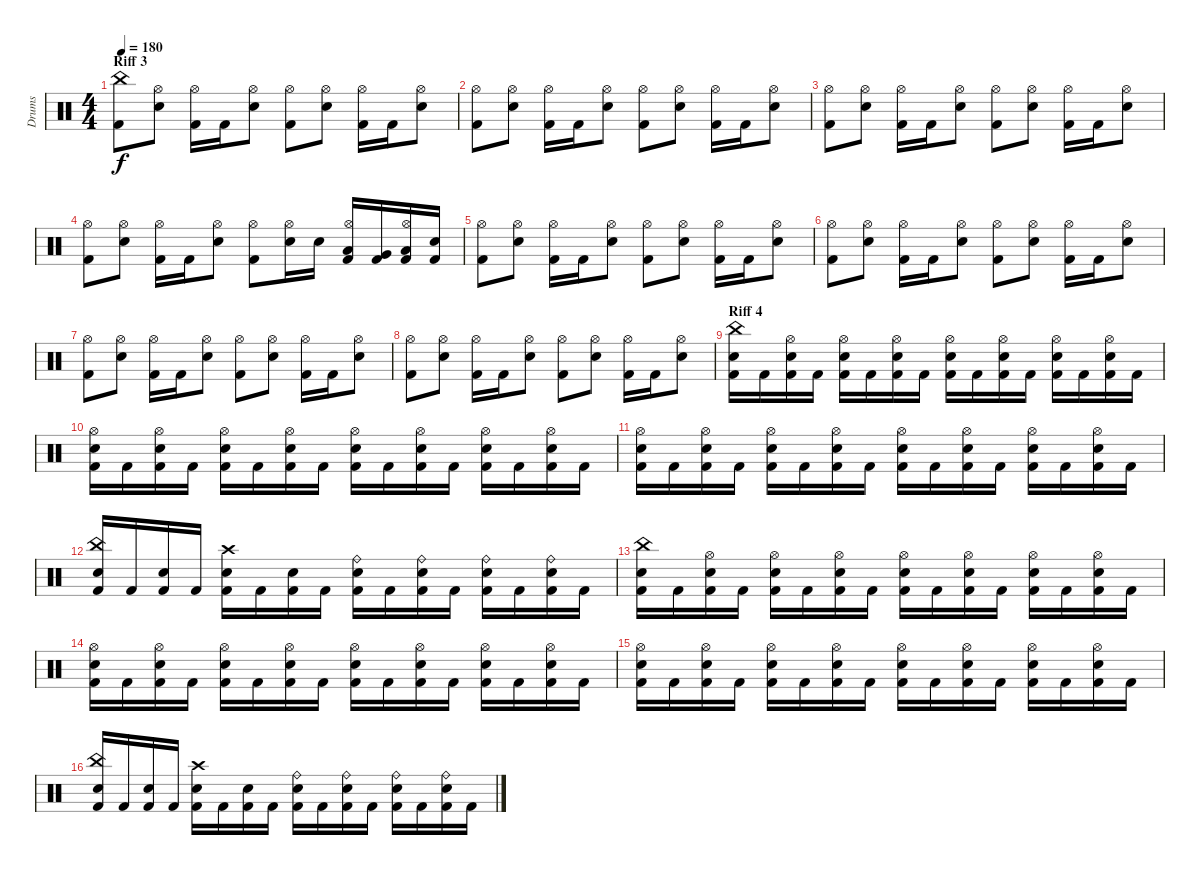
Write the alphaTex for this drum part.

\track ("Drums" "Drums") {instrument percussion}
\staff {score}
\articulation defaults
\ts (4 4)
\section ("" "Riff 3")
\tempo 180
\clef neutral
\ks c
("Kick (hit) 2" "China (hit)").8{dy f} ("Snare (hit) 2" "Hi-Hat (open)").8 ("Kick (hit) 2" "Hi-Hat (open)").16 "Kick (hit) 2".16 ("Snare (hit) 2" "Hi-Hat (open)").8 ("Kick (hit) 2" "Hi-Hat (open)").8 ("Snare (hit) 2" "Hi-Hat (open)").8 ("Kick (hit) 2" "Hi-Hat (open)").16 "Kick (hit) 2".16 ("Snare (hit) 2" "Hi-Hat (open)").8 |
("Kick (hit) 2" "Hi-Hat (open)").8 ("Snare (hit) 2" "Hi-Hat (open)").8 ("Kick (hit) 2" "Hi-Hat (open)").16 "Kick (hit) 2".16 ("Snare (hit) 2" "Hi-Hat (open)").8 ("Kick (hit) 2" "Hi-Hat (open)").8 ("Snare (hit) 2" "Hi-Hat (open)").8 ("Kick (hit) 2" "Hi-Hat (open)").16 "Kick (hit) 2".16 ("Snare (hit) 2" "Hi-Hat (open)").8 |
("Kick (hit) 2" "Hi-Hat (open)").8 ("Snare (hit) 2" "Hi-Hat (open)").8 ("Kick (hit) 2" "Hi-Hat (open)").16 "Kick (hit) 2".16 ("Snare (hit) 2" "Hi-Hat (open)").8 ("Kick (hit) 2" "Hi-Hat (open)").8 ("Snare (hit) 2" "Hi-Hat (open)").8 ("Kick (hit) 2" "Hi-Hat (open)").16 "Kick (hit) 2".16 ("Snare (hit) 2" "Hi-Hat (open)").8 |
("Kick (hit) 2" "Hi-Hat (open)").8 ("Snare (hit) 2" "Hi-Hat (open)").8 ("Kick (hit) 2" "Hi-Hat (open)").16 "Kick (hit) 2".16 ("Snare (hit) 2" "Hi-Hat (open)").8 ("Kick (hit) 2" "Hi-Hat (open)").8 ("Snare (hit) 2" "Hi-Hat (open)").16 "Snare (hit) 2".16 ("Kick (hit) 2" "Low Tom (hit)" "Hi-Hat (open)").16 ("Kick (hit) 2" "Very Low Tom (hit)").16 ("Kick (hit) 2" "Low Floor Tom (hit)" "Hi-Hat (open)").16 ("Kick (hit) 2" "Snare (hit) 2").16 |
("Kick (hit) 2" "Hi-Hat (open)").8 ("Snare (hit) 2" "Hi-Hat (open)").8 ("Kick (hit) 2" "Hi-Hat (open)").16 "Kick (hit) 2".16 ("Snare (hit) 2" "Hi-Hat (open)").8 ("Kick (hit) 2" "Hi-Hat (open)").8 ("Snare (hit) 2" "Hi-Hat (open)").8 ("Kick (hit) 2" "Hi-Hat (open)").16 "Kick (hit) 2".16 ("Snare (hit) 2" "Hi-Hat (open)").8 |
("Kick (hit) 2" "Hi-Hat (open)").8 ("Snare (hit) 2" "Hi-Hat (open)").8 ("Kick (hit) 2" "Hi-Hat (open)").16 "Kick (hit) 2".16 ("Snare (hit) 2" "Hi-Hat (open)").8 ("Kick (hit) 2" "Hi-Hat (open)").8 ("Snare (hit) 2" "Hi-Hat (open)").8 ("Kick (hit) 2" "Hi-Hat (open)").16 "Kick (hit) 2".16 ("Snare (hit) 2" "Hi-Hat (open)").8 |
("Kick (hit) 2" "Hi-Hat (open)").8 ("Snare (hit) 2" "Hi-Hat (open)").8 ("Kick (hit) 2" "Hi-Hat (open)").16 "Kick (hit) 2".16 ("Snare (hit) 2" "Hi-Hat (open)").8 ("Kick (hit) 2" "Hi-Hat (open)").8 ("Snare (hit) 2" "Hi-Hat (open)").8 ("Kick (hit) 2" "Hi-Hat (open)").16 "Kick (hit) 2".16 ("Snare (hit) 2" "Hi-Hat (open)").8 |
("Kick (hit) 2" "Hi-Hat (open)").8 ("Snare (hit) 2" "Hi-Hat (open)").8 ("Kick (hit) 2" "Hi-Hat (open)").16 "Kick (hit) 2".16 ("Snare (hit) 2" "Hi-Hat (open)").8 ("Kick (hit) 2" "Hi-Hat (open)").8 ("Snare (hit) 2" "Hi-Hat (open)").8 ("Kick (hit) 2" "Hi-Hat (open)").16 "Kick (hit) 2".16 ("Snare (hit) 2" "Hi-Hat (open)").8 |
\section ("" "Riff 4")
("Kick (hit) 2" "Snare (hit) 2" "China (hit)").16 "Kick (hit) 2".16 ("Kick (hit) 2" "Snare (hit) 2" "Hi-Hat (open)").16 "Kick (hit) 2".16 ("Kick (hit) 2" "Snare (hit) 2" "Hi-Hat (open)").16 "Kick (hit) 2".16 ("Kick (hit) 2" "Snare (hit) 2" "Hi-Hat (open)").16 "Kick (hit) 2".16 ("Kick (hit) 2" "Snare (hit) 2" "Hi-Hat (open)").16 "Kick (hit) 2".16 ("Kick (hit) 2" "Snare (hit) 2" "Hi-Hat (open)").16 "Kick (hit) 2".16 ("Kick (hit) 2" "Snare (hit) 2" "Hi-Hat (open)").16 "Kick (hit) 2".16 ("Kick (hit) 2" "Snare (hit) 2" "Hi-Hat (open)").16 "Kick (hit) 2".16 |
("Kick (hit) 2" "Snare (hit) 2" "Hi-Hat (open)").16 "Kick (hit) 2".16 ("Kick (hit) 2" "Snare (hit) 2" "Hi-Hat (open)").16 "Kick (hit) 2".16 ("Kick (hit) 2" "Snare (hit) 2" "Hi-Hat (open)").16 "Kick (hit) 2".16 ("Kick (hit) 2" "Snare (hit) 2" "Hi-Hat (open)").16 "Kick (hit) 2".16 ("Kick (hit) 2" "Snare (hit) 2" "Hi-Hat (open)").16 "Kick (hit) 2".16 ("Kick (hit) 2" "Snare (hit) 2" "Hi-Hat (open)").16 "Kick (hit) 2".16 ("Kick (hit) 2" "Snare (hit) 2" "Hi-Hat (open)").16 "Kick (hit) 2".16 ("Kick (hit) 2" "Snare (hit) 2" "Hi-Hat (open)").16 "Kick (hit) 2".16 |
("Kick (hit) 2" "Snare (hit) 2" "Hi-Hat (open)").16 "Kick (hit) 2".16 ("Kick (hit) 2" "Snare (hit) 2" "Hi-Hat (open)").16 "Kick (hit) 2".16 ("Kick (hit) 2" "Snare (hit) 2" "Hi-Hat (open)").16 "Kick (hit) 2".16 ("Kick (hit) 2" "Snare (hit) 2" "Hi-Hat (open)").16 "Kick (hit) 2".16 ("Kick (hit) 2" "Snare (hit) 2" "Hi-Hat (open)").16 "Kick (hit) 2".16 ("Kick (hit) 2" "Snare (hit) 2" "Hi-Hat (open)").16 "Kick (hit) 2".16 ("Kick (hit) 2" "Snare (hit) 2" "Hi-Hat (open)").16 "Kick (hit) 2".16 ("Kick (hit) 2" "Snare (hit) 2" "Hi-Hat (open)").16 "Kick (hit) 2".16 |
("Kick (hit) 2" "Snare (hit) 2" "China (hit)").16 "Kick (hit) 2".16 ("Kick (hit) 2" "Snare (hit) 2").16 "Kick (hit) 2".16 ("Kick (hit) 2" "Snare (hit) 2" "Crash high (hit)").16 "Kick (hit) 2".16 ("Kick (hit) 2" "Snare (hit) 2").16 "Kick (hit) 2".16 ("Kick (hit) 2" "Snare (hit) 2" "Ride (bell)").16 "Kick (hit) 2".16 ("Kick (hit) 2" "Snare (hit) 2" "Ride (bell)").16 "Kick (hit) 2".16 ("Kick (hit) 2" "Snare (hit) 2" "Ride (bell)").16 "Kick (hit) 2".16 ("Kick (hit) 2" "Snare (hit) 2" "Ride (bell)").16 "Kick (hit) 2".16 |
("Kick (hit) 2" "Snare (hit) 2" "China (hit)").16 "Kick (hit) 2".16 ("Kick (hit) 2" "Snare (hit) 2" "Hi-Hat (open)").16 "Kick (hit) 2".16 ("Kick (hit) 2" "Snare (hit) 2" "Hi-Hat (open)").16 "Kick (hit) 2".16 ("Kick (hit) 2" "Snare (hit) 2" "Hi-Hat (open)").16 "Kick (hit) 2".16 ("Kick (hit) 2" "Snare (hit) 2" "Hi-Hat (open)").16 "Kick (hit) 2".16 ("Kick (hit) 2" "Snare (hit) 2" "Hi-Hat (open)").16 "Kick (hit) 2".16 ("Kick (hit) 2" "Snare (hit) 2" "Hi-Hat (open)").16 "Kick (hit) 2".16 ("Kick (hit) 2" "Snare (hit) 2" "Hi-Hat (open)").16 "Kick (hit) 2".16 |
("Kick (hit) 2" "Snare (hit) 2" "Hi-Hat (open)").16 "Kick (hit) 2".16 ("Kick (hit) 2" "Snare (hit) 2" "Hi-Hat (open)").16 "Kick (hit) 2".16 ("Kick (hit) 2" "Snare (hit) 2" "Hi-Hat (open)").16 "Kick (hit) 2".16 ("Kick (hit) 2" "Snare (hit) 2" "Hi-Hat (open)").16 "Kick (hit) 2".16 ("Kick (hit) 2" "Snare (hit) 2" "Hi-Hat (open)").16 "Kick (hit) 2".16 ("Kick (hit) 2" "Snare (hit) 2" "Hi-Hat (open)").16 "Kick (hit) 2".16 ("Kick (hit) 2" "Snare (hit) 2" "Hi-Hat (open)").16 "Kick (hit) 2".16 ("Kick (hit) 2" "Snare (hit) 2" "Hi-Hat (open)").16 "Kick (hit) 2".16 |
("Kick (hit) 2" "Snare (hit) 2" "Hi-Hat (open)").16 "Kick (hit) 2".16 ("Kick (hit) 2" "Snare (hit) 2" "Hi-Hat (open)").16 "Kick (hit) 2".16 ("Kick (hit) 2" "Snare (hit) 2" "Hi-Hat (open)").16 "Kick (hit) 2".16 ("Kick (hit) 2" "Snare (hit) 2" "Hi-Hat (open)").16 "Kick (hit) 2".16 ("Kick (hit) 2" "Snare (hit) 2" "Hi-Hat (open)").16 "Kick (hit) 2".16 ("Kick (hit) 2" "Snare (hit) 2" "Hi-Hat (open)").16 "Kick (hit) 2".16 ("Kick (hit) 2" "Snare (hit) 2" "Hi-Hat (open)").16 "Kick (hit) 2".16 ("Kick (hit) 2" "Snare (hit) 2" "Hi-Hat (open)").16 "Kick (hit) 2".16 |
("Kick (hit) 2" "Snare (hit) 2" "China (hit)").16 "Kick (hit) 2".16 ("Kick (hit) 2" "Snare (hit) 2").16 "Kick (hit) 2".16 ("Kick (hit) 2" "Snare (hit) 2" "Crash high (hit)").16 "Kick (hit) 2".16 ("Kick (hit) 2" "Snare (hit) 2").16 "Kick (hit) 2".16 ("Kick (hit) 2" "Snare (hit) 2" "Ride (bell)").16 "Kick (hit) 2".16 ("Kick (hit) 2" "Snare (hit) 2" "Ride (bell)").16 "Kick (hit) 2".16 ("Kick (hit) 2" "Snare (hit) 2" "Ride (bell)").16 "Kick (hit) 2".16 ("Kick (hit) 2" "Snare (hit) 2" "Ride (bell)").16 "Kick (hit) 2".16
